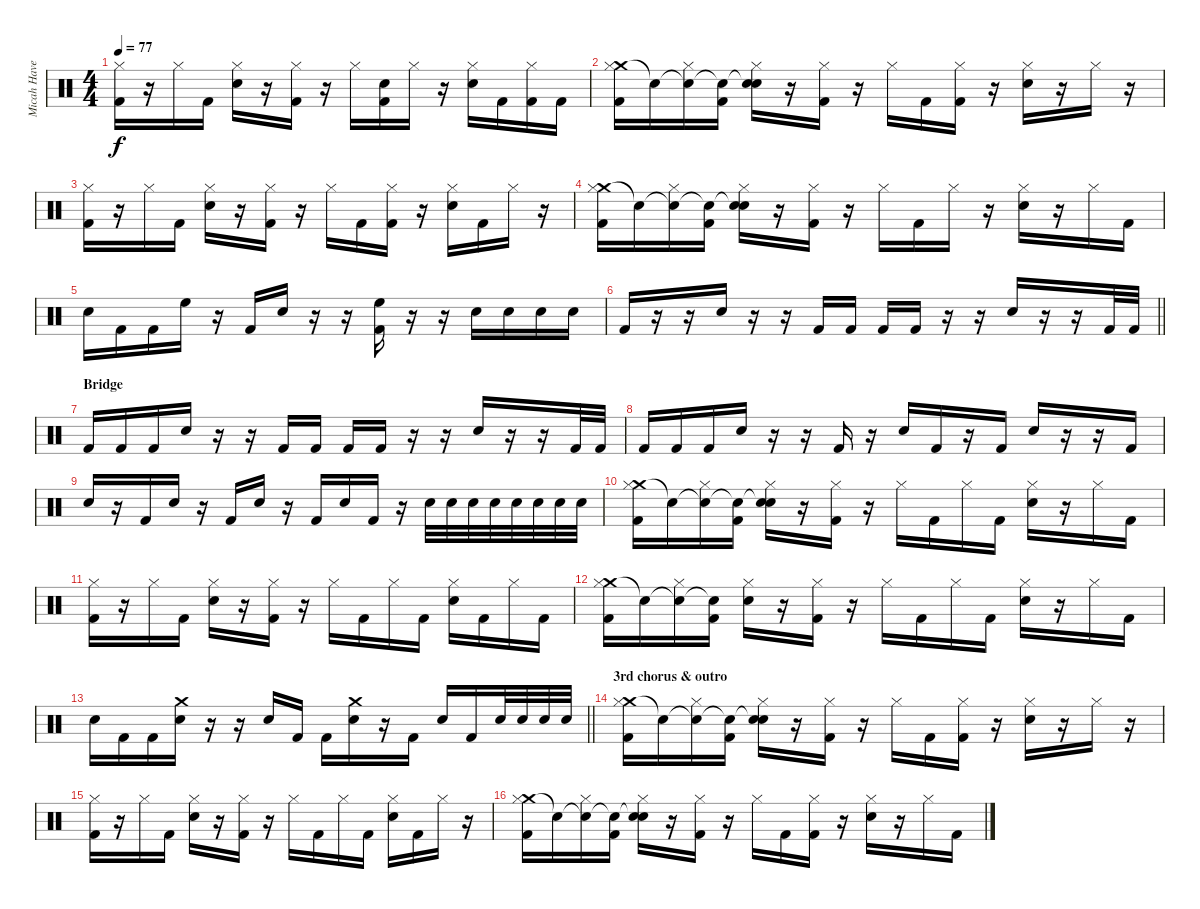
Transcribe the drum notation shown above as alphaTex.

\track ("Micah Havertape" "Micah Have") {instrument percussion}
\staff {score}
\articulation defaults
\ts (4 4)
\tempo 77
\clef neutral
\ks c
("Hi-Hat (closed)" "Kick (hit) 2").16{dy f} r.16 "Hi-Hat (closed)".16 "Kick (hit) 2".16 ("Hi-Hat (closed)" "Electric Snare (hit)").16 r.16 ("Hi-Hat (closed)" "Kick (hit) 2").16 r.16 "Hi-Hat (closed)".16 ("Electric Snare (hit)" "Kick (hit) 2").16 "Hi-Hat (closed)".16 r.16 ("Hi-Hat (closed)" "Electric Snare (hit)").16 "Kick (hit) 2".16 ("Hi-Hat (closed)" "Kick (hit) 2").16 "Kick (hit) 2".16 |
("Crash medium (hit)" "Hi-Hat (closed)" "Kick (hit) 2").16 "Snare (hit)"{t}.16 ("Snare (hit)"{t} "Hi-Hat (closed)").16 ("Snare (hit)"{t} "Kick (hit) 2").16 ("Snare (hit)"{t} "Hi-Hat (closed)" "Electric Snare (hit)").16 r.16 ("Hi-Hat (closed)" "Kick (hit) 2").16 r.16 "Hi-Hat (closed)".16 "Kick (hit) 2".16 ("Hi-Hat (closed)" "Kick (hit) 2").16 r.16 ("Hi-Hat (closed)" "Electric Snare (hit)").16 r.16 "Hi-Hat (closed)".16 r.16 |
("Hi-Hat (closed)" "Kick (hit) 2").16 r.16 "Hi-Hat (closed)".16 "Kick (hit) 2".16 ("Hi-Hat (closed)" "Electric Snare (hit)").16 r.16 ("Hi-Hat (closed)" "Kick (hit) 2").16 r.16 "Hi-Hat (closed)".16 "Kick (hit) 2".16 ("Hi-Hat (closed)" "Kick (hit) 2").16 r.16 ("Hi-Hat (closed)" "Electric Snare (hit)").16 "Kick (hit) 2".16 "Hi-Hat (closed)".16 r.16 |
("Crash medium (hit)" "Hi-Hat (closed)" "Kick (hit) 2").16 "Snare (hit)"{t}.16 ("Snare (hit)"{t} "Hi-Hat (closed)").16 ("Snare (hit)"{t} "Kick (hit) 2").16 ("Snare (hit)"{t} "Hi-Hat (closed)" "Electric Snare (hit)").16 r.16 ("Hi-Hat (closed)" "Kick (hit) 2").16 r.16 "Hi-Hat (closed)".16 "Kick (hit) 2".16 "Hi-Hat (closed)".16 r.16 ("Hi-Hat (closed)" "Electric Snare (hit)").16 r.16 "Hi-Hat (closed)".16 "Kick (hit) 2".16 |
"Electric Snare (hit)".16 "Kick (hit) 2".16 "Kick (hit) 2".16 "High Floor Tom (hit)".16 r.16 "Kick (hit) 2".16 "Electric Snare (hit)".16 r.16 r.16 ("High Floor Tom (hit)" "Kick (hit) 2").16 r.16 r.16 "Electric Snare (hit)".16 "Electric Snare (hit)".16 "Electric Snare (hit)".16 "Electric Snare (hit)".16 |
\barLineRight lightlight "Kick (hit) 2".16
r.16 r.16 "Electric Snare (hit)".16 r.16 r.16 "Kick (hit) 2".16 "Kick (hit) 2".16 "Kick (hit) 2".16 "Kick (hit) 2".16 r.16 r.16 "Electric Snare (hit)".16 r.16 r.16 "Kick (hit) 2".32 "Kick (hit) 2".32 |
\section ("" "Bridge")
"Kick (hit) 2".16 "Kick (hit) 2".16 "Kick (hit) 2".16 "Electric Snare (hit)".16 r.16 r.16 "Kick (hit) 2".16 "Kick (hit) 2".16 "Kick (hit) 2".16 "Kick (hit) 2".16 r.16 r.16 "Electric Snare (hit)".16 r.16 r.16 "Kick (hit) 2".32 "Kick (hit) 2".32 |
"Kick (hit) 2".16 "Kick (hit) 2".16 "Kick (hit) 2".16 "Electric Snare (hit)".16 r.16 r.16 "Kick (hit) 2".16 r.16 "Electric Snare (hit)".16 "Kick (hit) 2".16 r.16 "Kick (hit) 2".16 "Electric Snare (hit)".16 r.16 r.16 "Kick (hit) 2".16 |
"Electric Snare (hit)".16 r.16 "Kick (hit) 2".16 "Electric Snare (hit)".16 r.16 "Kick (hit) 2".16 "Electric Snare (hit)".16 r.16 "Kick (hit) 2".16 "Electric Snare (hit)".16 "Kick (hit) 2".16 r.16 "Electric Snare (hit)".32 "Electric Snare (hit)".32 "Electric Snare (hit)".32 "Electric Snare (hit)".32 "Electric Snare (hit)".32 "Electric Snare (hit)".32 "Electric Snare (hit)".32 "Electric Snare (hit)".32 |
("Crash medium (hit)" "Hi-Hat (closed)" "Kick (hit) 2").16 "Snare (hit)"{t}.16 ("Snare (hit)"{t} "Hi-Hat (closed)").16 ("Snare (hit)"{t} "Kick (hit) 2").16 ("Snare (hit)"{t} "Hi-Hat (closed)" "Electric Snare (hit)").16 r.16 ("Hi-Hat (closed)" "Kick (hit) 2").16 r.16 "Hi-Hat (closed)".16 "Kick (hit) 2".16 "Hi-Hat (closed)".16 "Kick (hit) 2".16 ("Hi-Hat (closed)" "Electric Snare (hit)").16 r.16 "Hi-Hat (closed)".16 "Kick (hit) 2".16 |
("Hi-Hat (closed)" "Kick (hit) 2").16 r.16 "Hi-Hat (closed)".16 "Kick (hit) 2".16 ("Hi-Hat (closed)" "Electric Snare (hit)").16 r.16 ("Hi-Hat (closed)" "Kick (hit) 2").16 r.16 "Hi-Hat (closed)".16 "Kick (hit) 2".16 "Hi-Hat (closed)".16 "Kick (hit) 2".16 ("Hi-Hat (closed)" "Electric Snare (hit)").16 "Kick (hit) 2".16 "Hi-Hat (closed)".16 "Kick (hit) 2".16 |
("Crash medium (hit)" "Hi-Hat (closed)" "Kick (hit) 2").16 "Snare (hit)"{t}.16 ("Snare (hit)"{t} "Hi-Hat (closed)").16 ("Snare (hit)"{t} "Kick (hit) 2").16 ("Hi-Hat (closed)" "Electric Snare (hit)").16 r.16 ("Hi-Hat (closed)" "Kick (hit) 2").16 r.16 "Hi-Hat (closed)".16 "Kick (hit) 2".16 "Hi-Hat (closed)".16 "Kick (hit) 2".16 ("Hi-Hat (closed)" "Electric Snare (hit)").16 r.16 "Hi-Hat (closed)".16 "Kick (hit) 2".16 |
\barLineRight lightlight "Electric Snare (hit)".16 "Kick (hit) 2".16 "Kick (hit) 2".16
("Crash medium (hit)" "Electric Snare (hit)").16 r.16 r.16 "Electric Snare (hit)".16 "Kick (hit) 2".16 "Kick (hit) 2".16 ("Crash medium (hit)" "Electric Snare (hit)").16 r.16 "Kick (hit) 2".16 "Electric Snare (hit)".16 "Kick (hit) 2".16 "Electric Snare (hit)".32 "Electric Snare (hit)".32 "Electric Snare (hit)".32 "Electric Snare (hit)".32 |
\section ("" "3rd chorus & outro")
("Crash medium (hit)" "Hi-Hat (closed)" "Kick (hit) 2").16 "Snare (hit)"{t}.16 ("Snare (hit)"{t} "Hi-Hat (closed)").16 ("Snare (hit)"{t} "Kick (hit) 2").16 ("Snare (hit)"{t} "Hi-Hat (closed)" "Electric Snare (hit)").16 r.16 ("Hi-Hat (closed)" "Kick (hit) 2").16 r.16 "Hi-Hat (closed)".16 "Kick (hit) 2".16 ("Hi-Hat (closed)" "Kick (hit) 2").16 r.16 ("Hi-Hat (closed)" "Electric Snare (hit)").16 r.16 "Hi-Hat (closed)".16 r.16 |
("Hi-Hat (closed)" "Kick (hit) 2").16 r.16 "Hi-Hat (closed)".16 "Kick (hit) 2".16 ("Hi-Hat (closed)" "Electric Snare (hit)").16 r.16 ("Hi-Hat (closed)" "Kick (hit) 2").16 r.16 "Hi-Hat (closed)".16 "Kick (hit) 2".16 "Hi-Hat (closed)".16 "Kick (hit) 2".16 ("Hi-Hat (closed)" "Electric Snare (hit)").16 "Kick (hit) 2".16 "Hi-Hat (closed)".16 r.16 |
("Crash medium (hit)" "Hi-Hat (closed)" "Kick (hit) 2").16 "Snare (hit)"{t}.16 ("Snare (hit)"{t} "Hi-Hat (closed)").16 ("Snare (hit)"{t} "Kick (hit) 2").16 ("Snare (hit)"{t} "Hi-Hat (closed)" "Electric Snare (hit)").16 r.16 ("Hi-Hat (closed)" "Kick (hit) 2").16 r.16 "Hi-Hat (closed)".16 "Kick (hit) 2".16 ("Hi-Hat (closed)" "Kick (hit) 2").16 r.16 ("Hi-Hat (closed)" "Electric Snare (hit)").16 r.16 "Hi-Hat (closed)".16 "Kick (hit) 2".16
